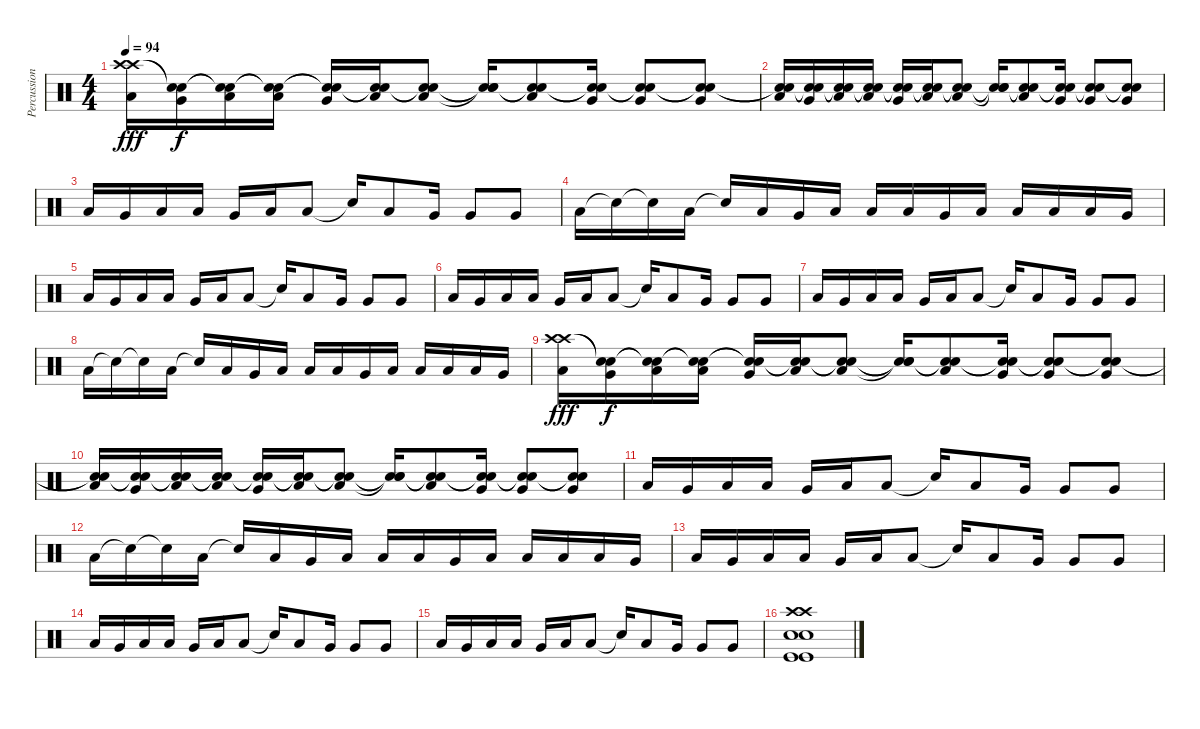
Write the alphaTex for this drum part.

\track ("Percussion" "Percussion") {instrument percussion}
\staff {score}
\articulation defaults
\ts (4 4)
\tempo 94
\clef neutral
\ks c
("Crash high (hit)" "Crash high (hit)" "Low Floor Tom (hit)").16{dy fff} ("Snare (hit)"{t} "Snare (hit)"{t} "Very Low Tom (hit)").16{dy f} ("Snare (hit)"{t} "Snare (hit)"{t} "Low Floor Tom (hit)").16 ("Snare (hit)"{t} "Snare (hit)"{t} "Low Floor Tom (hit)").16 ("Snare (hit)"{t} "Snare (hit)"{t} "Very Low Tom (hit)").16 ("Snare (hit)"{t} "Snare (hit)"{t} "Low Floor Tom (hit)").16 ("Snare (hit)"{t} "Snare (hit)"{t} "Low Floor Tom (hit)").8 ("Snare (hit)"{t} "Snare (hit)"{t} "Snare (hit)"{t}).16 ("Snare (hit)"{t} "Snare (hit)"{t} "Low Floor Tom (hit)").8 ("Snare (hit)"{t} "Snare (hit)"{t} "Very Low Tom (hit)").16 ("Snare (hit)"{t} "Snare (hit)"{t} "Very Low Tom (hit)").8 ("Snare (hit)"{t} "Snare (hit)"{t} "Very Low Tom (hit)").8 |
("Snare (hit)"{t} "Snare (hit)"{t} "Low Floor Tom (hit)").16 ("Snare (hit)"{t} "Snare (hit)"{t} "Very Low Tom (hit)").16 ("Snare (hit)"{t} "Snare (hit)"{t} "Low Floor Tom (hit)").16 ("Snare (hit)"{t} "Snare (hit)"{t} "Low Floor Tom (hit)").16 ("Snare (hit)"{t} "Snare (hit)"{t} "Very Low Tom (hit)").16 ("Snare (hit)"{t} "Snare (hit)"{t} "Low Floor Tom (hit)").16 ("Snare (hit)"{t} "Snare (hit)"{t} "Low Floor Tom (hit)").8 ("Snare (hit)"{t} "Snare (hit)"{t} "Snare (hit)"{t}).16 ("Snare (hit)"{t} "Snare (hit)"{t} "Low Floor Tom (hit)").8 ("Snare (hit)"{t} "Snare (hit)"{t} "Very Low Tom (hit)").16 ("Snare (hit)"{t} "Snare (hit)"{t} "Very Low Tom (hit)").8 ("Snare (hit)"{t} "Snare (hit)"{t} "Very Low Tom (hit)").8 |
"Low Floor Tom (hit)".16 "Very Low Tom (hit)".16 "Low Floor Tom (hit)".16 "Low Floor Tom (hit)".16 "Very Low Tom (hit)".16 "Low Floor Tom (hit)".16 "Low Floor Tom (hit)".8 "Snare (hit)"{t}.16 "Low Floor Tom (hit)".8 "Very Low Tom (hit)".16 "Very Low Tom (hit)".8 "Very Low Tom (hit)".8 |
"Low Floor Tom (hit)".16 "Snare (hit)"{t}.16 "Snare (hit)"{t}.16 "Low Floor Tom (hit)".16 "Snare (hit)"{t}.16 "Low Floor Tom (hit)".16 "Very Low Tom (hit)".16 "Low Floor Tom (hit)".16 "Low Floor Tom (hit)".16 "Low Tom (hit)".16 "Very Low Tom (hit)".16 "Low Floor Tom (hit)".16 "Low Tom (hit)".16 "Low Floor Tom (hit)".16 "Low Tom (hit)".16 "Very Low Tom (hit)".16 |
"Low Floor Tom (hit)".16 "Very Low Tom (hit)".16 "Low Floor Tom (hit)".16 "Low Floor Tom (hit)".16 "Very Low Tom (hit)".16 "Low Floor Tom (hit)".16 "Low Floor Tom (hit)".8 "Snare (hit)"{t}.16 "Low Floor Tom (hit)".8 "Very Low Tom (hit)".16 "Very Low Tom (hit)".8 "Very Low Tom (hit)".8 |
"Low Floor Tom (hit)".16 "Very Low Tom (hit)".16 "Low Floor Tom (hit)".16 "Low Floor Tom (hit)".16 "Very Low Tom (hit)".16 "Low Floor Tom (hit)".16 "Low Floor Tom (hit)".8 "Snare (hit)"{t}.16 "Low Floor Tom (hit)".8 "Very Low Tom (hit)".16 "Very Low Tom (hit)".8 "Very Low Tom (hit)".8 |
"Low Floor Tom (hit)".16 "Very Low Tom (hit)".16 "Low Floor Tom (hit)".16 "Low Floor Tom (hit)".16 "Very Low Tom (hit)".16 "Low Floor Tom (hit)".16 "Low Floor Tom (hit)".8 "Snare (hit)"{t}.16 "Low Floor Tom (hit)".8 "Very Low Tom (hit)".16 "Very Low Tom (hit)".8 "Very Low Tom (hit)".8 |
"Low Floor Tom (hit)".16 "Snare (hit)"{t}.16 "Snare (hit)"{t}.16 "Low Floor Tom (hit)".16 "Snare (hit)"{t}.16 "Low Floor Tom (hit)".16 "Very Low Tom (hit)".16 "Low Floor Tom (hit)".16 "Low Floor Tom (hit)".16 "Low Tom (hit)".16 "Very Low Tom (hit)".16 "Low Floor Tom (hit)".16 "Low Tom (hit)".16 "Low Floor Tom (hit)".16 "Low Tom (hit)".16 "Very Low Tom (hit)".16 |
("Crash high (hit)" "Crash high (hit)" "Low Floor Tom (hit)").16{dy fff} ("Snare (hit)"{t} "Snare (hit)"{t} "Very Low Tom (hit)").16{dy f} ("Snare (hit)"{t} "Snare (hit)"{t} "Low Floor Tom (hit)").16 ("Snare (hit)"{t} "Snare (hit)"{t} "Low Floor Tom (hit)").16 ("Snare (hit)"{t} "Snare (hit)"{t} "Very Low Tom (hit)").16 ("Snare (hit)"{t} "Snare (hit)"{t} "Low Floor Tom (hit)").16 ("Snare (hit)"{t} "Snare (hit)"{t} "Low Floor Tom (hit)").8 ("Snare (hit)"{t} "Snare (hit)"{t} "Snare (hit)"{t}).16 ("Snare (hit)"{t} "Snare (hit)"{t} "Low Floor Tom (hit)").8 ("Snare (hit)"{t} "Snare (hit)"{t} "Very Low Tom (hit)").16 ("Snare (hit)"{t} "Snare (hit)"{t} "Very Low Tom (hit)").8 ("Snare (hit)"{t} "Snare (hit)"{t} "Very Low Tom (hit)").8 |
("Snare (hit)"{t} "Snare (hit)"{t} "Low Floor Tom (hit)").16 ("Snare (hit)"{t} "Snare (hit)"{t} "Very Low Tom (hit)").16 ("Snare (hit)"{t} "Snare (hit)"{t} "Low Floor Tom (hit)").16 ("Snare (hit)"{t} "Snare (hit)"{t} "Low Floor Tom (hit)").16 ("Snare (hit)"{t} "Snare (hit)"{t} "Very Low Tom (hit)").16 ("Snare (hit)"{t} "Snare (hit)"{t} "Low Floor Tom (hit)").16 ("Snare (hit)"{t} "Snare (hit)"{t} "Low Floor Tom (hit)").8 ("Snare (hit)"{t} "Snare (hit)"{t} "Snare (hit)"{t}).16 ("Snare (hit)"{t} "Snare (hit)"{t} "Low Floor Tom (hit)").8 ("Snare (hit)"{t} "Snare (hit)"{t} "Very Low Tom (hit)").16 ("Snare (hit)"{t} "Snare (hit)"{t} "Very Low Tom (hit)").8 ("Snare (hit)"{t} "Snare (hit)"{t} "Very Low Tom (hit)").8 |
"Low Floor Tom (hit)".16 "Very Low Tom (hit)".16 "Low Floor Tom (hit)".16 "Low Floor Tom (hit)".16 "Very Low Tom (hit)".16 "Low Floor Tom (hit)".16 "Low Floor Tom (hit)".8 "Snare (hit)"{t}.16 "Low Floor Tom (hit)".8 "Very Low Tom (hit)".16 "Very Low Tom (hit)".8 "Very Low Tom (hit)".8 |
"Low Floor Tom (hit)".16 "Snare (hit)"{t}.16 "Snare (hit)"{t}.16 "Low Floor Tom (hit)".16 "Snare (hit)"{t}.16 "Low Floor Tom (hit)".16 "Very Low Tom (hit)".16 "Low Floor Tom (hit)".16 "Low Floor Tom (hit)".16 "Low Tom (hit)".16 "Very Low Tom (hit)".16 "Low Floor Tom (hit)".16 "Low Tom (hit)".16 "Low Floor Tom (hit)".16 "Low Tom (hit)".16 "Very Low Tom (hit)".16 |
"Low Floor Tom (hit)".16 "Very Low Tom (hit)".16 "Low Floor Tom (hit)".16 "Low Floor Tom (hit)".16 "Very Low Tom (hit)".16 "Low Floor Tom (hit)".16 "Low Floor Tom (hit)".8 "Snare (hit)"{t}.16 "Low Floor Tom (hit)".8 "Very Low Tom (hit)".16 "Very Low Tom (hit)".8 "Very Low Tom (hit)".8 |
"Low Floor Tom (hit)".16 "Very Low Tom (hit)".16 "Low Floor Tom (hit)".16 "Low Floor Tom (hit)".16 "Very Low Tom (hit)".16 "Low Floor Tom (hit)".16 "Low Floor Tom (hit)".8 "Snare (hit)"{t}.16 "Low Floor Tom (hit)".8 "Very Low Tom (hit)".16 "Very Low Tom (hit)".8 "Very Low Tom (hit)".8 |
"Low Floor Tom (hit)".16 "Very Low Tom (hit)".16 "Low Floor Tom (hit)".16 "Low Floor Tom (hit)".16 "Very Low Tom (hit)".16 "Low Floor Tom (hit)".16 "Low Floor Tom (hit)".8 "Snare (hit)"{t}.16 "Low Floor Tom (hit)".8 "Very Low Tom (hit)".16 "Very Low Tom (hit)".8 "Very Low Tom (hit)".8 |
("Crash high (hit)" "Crash high (hit)" "Electric Snare (hit)" "Electric Snare (hit)" "Kick (hit)" "Kick (hit)").1
